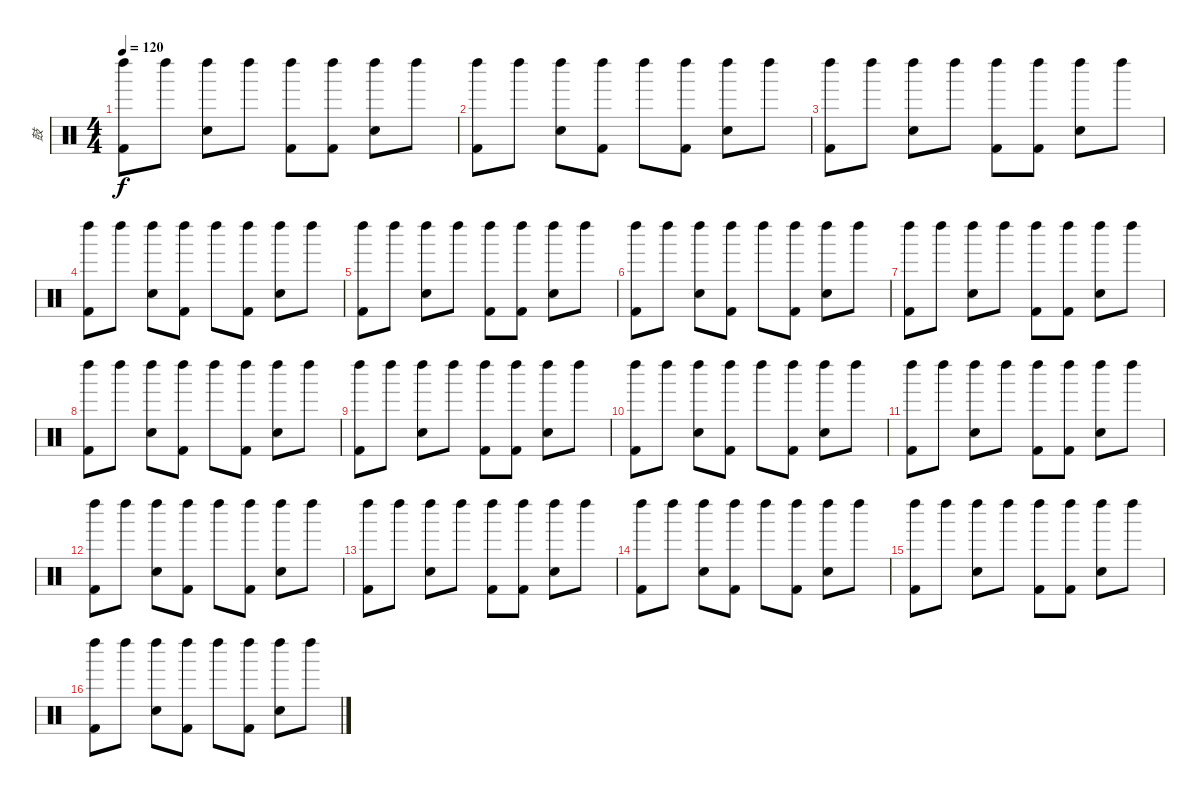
\track ("鼓" "鼓") {instrument percussion}
\staff {score}
\articulation defaults
\ts (4 4)
\tempo 120
\clef neutral
\ks c
("Left Maraca (hit)" "Kick (hit) 2").8{dy f} "Left Maraca (hit)".8 ("Left Maraca (hit)" "Snare (hit) 2").8 "Left Maraca (hit)".8 ("Left Maraca (hit)" "Kick (hit) 2").8 ("Left Maraca (hit)" "Kick (hit) 2").8 ("Left Maraca (hit)" "Snare (hit) 2").8 "Left Maraca (hit)".8 |
("Left Maraca (hit)" "Kick (hit) 2").8 "Left Maraca (hit)".8 ("Left Maraca (hit)" "Snare (hit) 2").8 ("Left Maraca (hit)" "Kick (hit) 2").8 "Left Maraca (hit)".8 ("Left Maraca (hit)" "Kick (hit) 2").8 ("Left Maraca (hit)" "Snare (hit) 2").8 "Left Maraca (hit)".8 |
("Left Maraca (hit)" "Kick (hit) 2").8 "Left Maraca (hit)".8 ("Left Maraca (hit)" "Snare (hit) 2").8 "Left Maraca (hit)".8 ("Left Maraca (hit)" "Kick (hit) 2").8 ("Left Maraca (hit)" "Kick (hit) 2").8 ("Left Maraca (hit)" "Snare (hit) 2").8 "Left Maraca (hit)".8 |
("Left Maraca (hit)" "Kick (hit) 2").8 "Left Maraca (hit)".8 ("Left Maraca (hit)" "Snare (hit) 2").8 ("Left Maraca (hit)" "Kick (hit) 2").8 "Left Maraca (hit)".8 ("Left Maraca (hit)" "Kick (hit) 2").8 ("Left Maraca (hit)" "Snare (hit) 2").8 "Left Maraca (hit)".8 |
("Left Maraca (hit)" "Kick (hit) 2").8 "Left Maraca (hit)".8 ("Left Maraca (hit)" "Snare (hit) 2").8 "Left Maraca (hit)".8 ("Left Maraca (hit)" "Kick (hit) 2").8 ("Left Maraca (hit)" "Kick (hit) 2").8 ("Left Maraca (hit)" "Snare (hit) 2").8 "Left Maraca (hit)".8 |
("Left Maraca (hit)" "Kick (hit) 2").8 "Left Maraca (hit)".8 ("Left Maraca (hit)" "Snare (hit) 2").8 ("Left Maraca (hit)" "Kick (hit) 2").8 "Left Maraca (hit)".8 ("Left Maraca (hit)" "Kick (hit) 2").8 ("Left Maraca (hit)" "Snare (hit) 2").8 "Left Maraca (hit)".8 |
("Left Maraca (hit)" "Kick (hit) 2").8 "Left Maraca (hit)".8 ("Left Maraca (hit)" "Snare (hit) 2").8 "Left Maraca (hit)".8 ("Left Maraca (hit)" "Kick (hit) 2").8 ("Left Maraca (hit)" "Kick (hit) 2").8 ("Left Maraca (hit)" "Snare (hit) 2").8 "Left Maraca (hit)".8 |
("Left Maraca (hit)" "Kick (hit) 2").8 "Left Maraca (hit)".8 ("Left Maraca (hit)" "Snare (hit) 2").8 ("Left Maraca (hit)" "Kick (hit) 2").8 "Left Maraca (hit)".8 ("Left Maraca (hit)" "Kick (hit) 2").8 ("Left Maraca (hit)" "Snare (hit) 2").8 "Left Maraca (hit)".8 |
("Left Maraca (hit)" "Kick (hit) 2").8 "Left Maraca (hit)".8 ("Left Maraca (hit)" "Snare (hit) 2").8 "Left Maraca (hit)".8 ("Left Maraca (hit)" "Kick (hit) 2").8 ("Left Maraca (hit)" "Kick (hit) 2").8 ("Left Maraca (hit)" "Snare (hit) 2").8 "Left Maraca (hit)".8 |
("Left Maraca (hit)" "Kick (hit) 2").8 "Left Maraca (hit)".8 ("Left Maraca (hit)" "Snare (hit) 2").8 ("Left Maraca (hit)" "Kick (hit) 2").8 "Left Maraca (hit)".8 ("Left Maraca (hit)" "Kick (hit) 2").8 ("Left Maraca (hit)" "Snare (hit) 2").8 "Left Maraca (hit)".8 |
("Left Maraca (hit)" "Kick (hit) 2").8 "Left Maraca (hit)".8 ("Left Maraca (hit)" "Snare (hit) 2").8 "Left Maraca (hit)".8 ("Left Maraca (hit)" "Kick (hit) 2").8 ("Left Maraca (hit)" "Kick (hit) 2").8 ("Left Maraca (hit)" "Snare (hit) 2").8 "Left Maraca (hit)".8 |
("Left Maraca (hit)" "Kick (hit) 2").8 "Left Maraca (hit)".8 ("Left Maraca (hit)" "Snare (hit) 2").8 ("Left Maraca (hit)" "Kick (hit) 2").8 "Left Maraca (hit)".8 ("Left Maraca (hit)" "Kick (hit) 2").8 ("Left Maraca (hit)" "Snare (hit) 2").8 "Left Maraca (hit)".8 |
("Left Maraca (hit)" "Kick (hit) 2").8 "Left Maraca (hit)".8 ("Left Maraca (hit)" "Snare (hit) 2").8 "Left Maraca (hit)".8 ("Left Maraca (hit)" "Kick (hit) 2").8 ("Left Maraca (hit)" "Kick (hit) 2").8 ("Left Maraca (hit)" "Snare (hit) 2").8 "Left Maraca (hit)".8 |
("Left Maraca (hit)" "Kick (hit) 2").8 "Left Maraca (hit)".8 ("Left Maraca (hit)" "Snare (hit) 2").8 ("Left Maraca (hit)" "Kick (hit) 2").8 "Left Maraca (hit)".8 ("Left Maraca (hit)" "Kick (hit) 2").8 ("Left Maraca (hit)" "Snare (hit) 2").8 "Left Maraca (hit)".8 |
("Left Maraca (hit)" "Kick (hit) 2").8 "Left Maraca (hit)".8 ("Left Maraca (hit)" "Snare (hit) 2").8 "Left Maraca (hit)".8 ("Left Maraca (hit)" "Kick (hit) 2").8 ("Left Maraca (hit)" "Kick (hit) 2").8 ("Left Maraca (hit)" "Snare (hit) 2").8 "Left Maraca (hit)".8 |
("Left Maraca (hit)" "Kick (hit) 2").8 "Left Maraca (hit)".8 ("Left Maraca (hit)" "Snare (hit) 2").8 ("Left Maraca (hit)" "Kick (hit) 2").8 "Left Maraca (hit)".8 ("Left Maraca (hit)" "Kick (hit) 2").8 ("Left Maraca (hit)" "Snare (hit) 2").8 "Left Maraca (hit)".8
